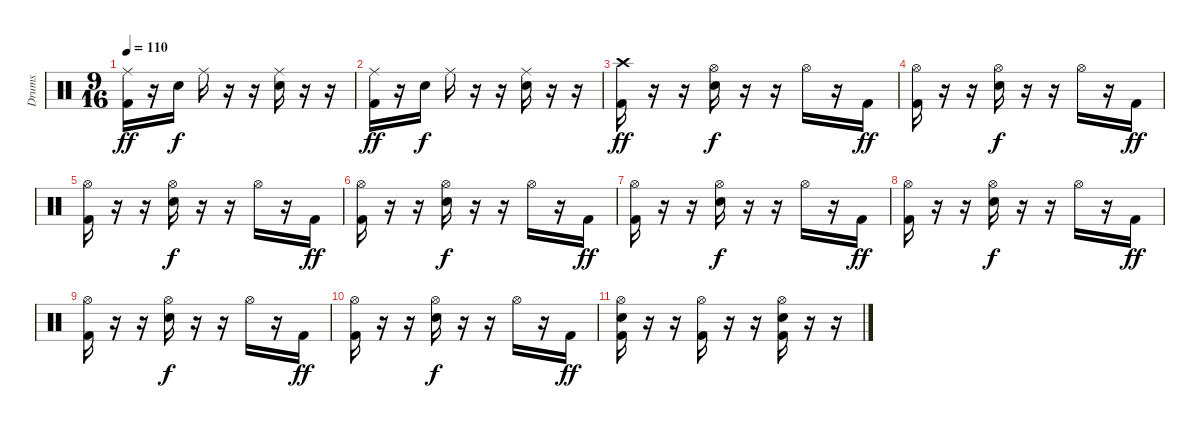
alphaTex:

\track ("Drums" "Drums") {instrument percussion}
\staff {score}
\articulation defaults
\ts (9 16)
\tempo 110
\clef neutral
\ks c
("Ride (middle)" "Kick (hit) 2").16{dy ff} r.16 "Snare (hit) 2".16{dy f} "Ride (middle)".16 r.16 r.16 ("Ride (middle)" "Snare (hit) 2").16 r.16 r.16 |
("Ride (middle)" "Kick (hit) 2").16{dy ff} r.16 "Snare (hit) 2".16{dy f} "Ride (middle)".16 r.16 r.16 ("Ride (middle)" "Snare (hit) 2").16 r.16 r.16 |
("Crash high (hit)" "Kick (hit) 2").16{dy ff} r.16 r.16 ("Hi-Hat (open)" "Snare (hit) 2").16{dy f} r.16 r.16 "Hi-Hat (open)".16 r.16 "Kick (hit) 2".16{dy ff} |
("Hi-Hat (open)" "Kick (hit) 2").16 r.16 r.16 ("Hi-Hat (open)" "Snare (hit) 2").16{dy f} r.16 r.16 "Hi-Hat (open)".16 r.16 "Kick (hit) 2".16{dy ff} |
("Hi-Hat (open)" "Kick (hit) 2").16 r.16 r.16 ("Hi-Hat (open)" "Snare (hit) 2").16{dy f} r.16 r.16 "Hi-Hat (open)".16 r.16 "Kick (hit) 2".16{dy ff} |
("Hi-Hat (open)" "Kick (hit) 2").16 r.16 r.16 ("Hi-Hat (open)" "Snare (hit) 2").16{dy f} r.16 r.16 "Hi-Hat (open)".16 r.16 "Kick (hit) 2".16{dy ff} |
("Hi-Hat (open)" "Kick (hit) 2").16 r.16 r.16 ("Hi-Hat (open)" "Snare (hit) 2").16{dy f} r.16 r.16 "Hi-Hat (open)".16 r.16 "Kick (hit) 2".16{dy ff} |
("Hi-Hat (open)" "Kick (hit) 2").16 r.16 r.16 ("Hi-Hat (open)" "Snare (hit) 2").16{dy f} r.16 r.16 "Hi-Hat (open)".16 r.16 "Kick (hit) 2".16{dy ff} |
("Hi-Hat (open)" "Kick (hit) 2").16 r.16 r.16 ("Hi-Hat (open)" "Snare (hit) 2").16{dy f} r.16 r.16 "Hi-Hat (open)".16 r.16 "Kick (hit) 2".16{dy ff} |
("Hi-Hat (open)" "Kick (hit) 2").16 r.16 r.16 ("Hi-Hat (open)" "Snare (hit) 2").16{dy f} r.16 r.16 "Hi-Hat (open)".16 r.16 "Kick (hit) 2".16{dy ff} |
("Hi-Hat (open)" "Snare (hit) 2" "Kick (hit) 2").16 r.16 r.16 ("Hi-Hat (open)" "Kick (hit) 2").16 r.16 r.16 ("Hi-Hat (open)" "Snare (hit) 2" "Kick (hit) 2").16 r.16 r.16
